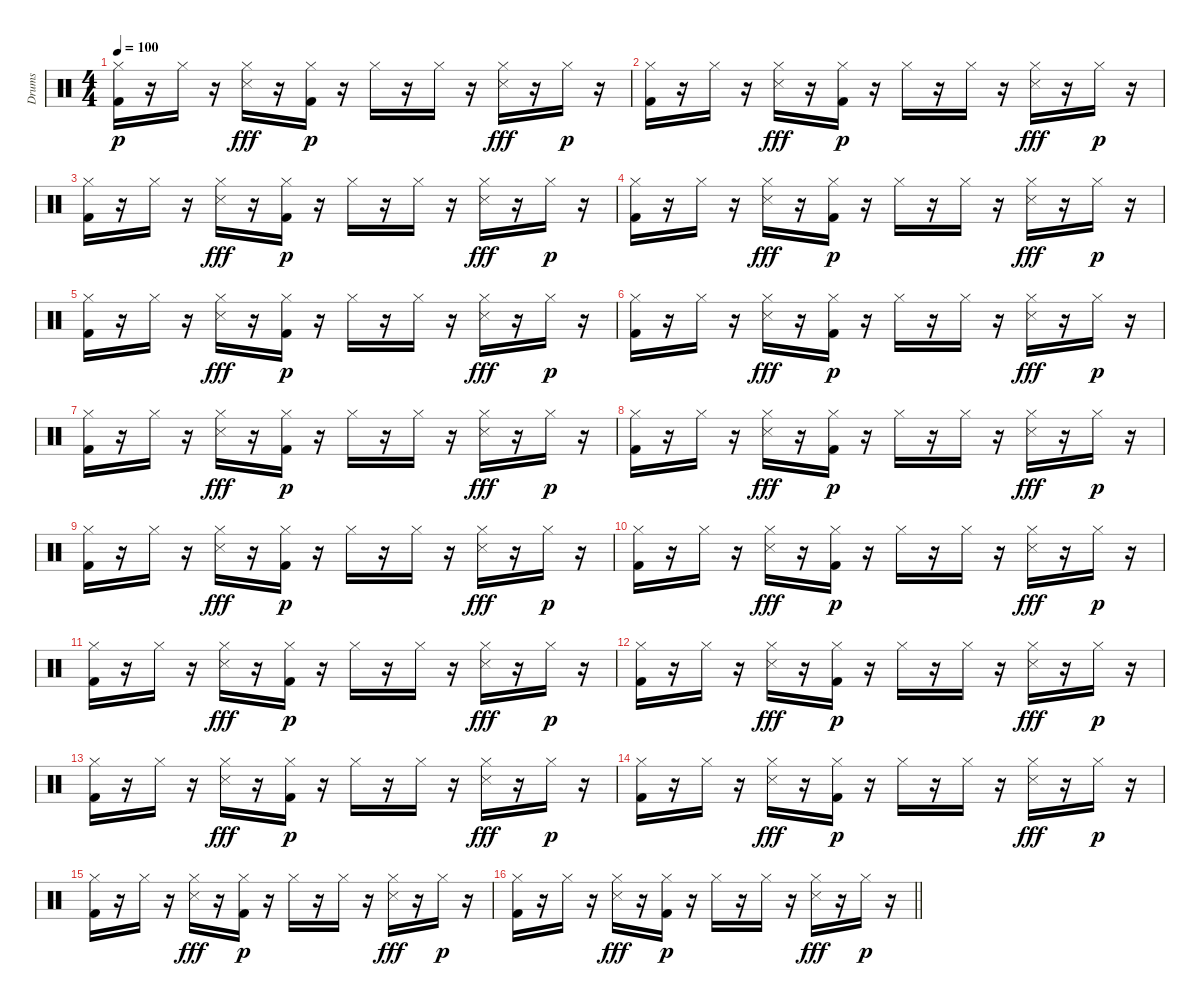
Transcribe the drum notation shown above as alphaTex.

\track ("Drums" "Drums") {instrument percussion}
\staff {score}
\articulation defaults
\ts (4 4)
\tempo 100
\clef neutral
\ks c
("Hi-Hat (closed)" "Kick (hit) 2").16{dy p} r.16 "Hi-Hat (closed)".16 r.16 ("Hi-Hat (closed)" "Snare (side stick) 3").16{dy fff} r.16 ("Hi-Hat (closed)" "Kick (hit) 2").16{dy p} r.16 "Hi-Hat (closed)".16 r.16 "Hi-Hat (closed)".16 r.16 ("Hi-Hat (closed)" "Snare (side stick) 3").16{dy fff} r.16 "Hi-Hat (closed)".16{dy p} r.16 |
("Hi-Hat (closed)" "Kick (hit) 2").16 r.16 "Hi-Hat (closed)".16 r.16 ("Hi-Hat (closed)" "Snare (side stick) 3").16{dy fff} r.16 ("Hi-Hat (closed)" "Kick (hit) 2").16{dy p} r.16 "Hi-Hat (closed)".16 r.16 "Hi-Hat (closed)".16 r.16 ("Hi-Hat (closed)" "Snare (side stick) 3").16{dy fff} r.16 "Hi-Hat (closed)".16{dy p} r.16 |
("Hi-Hat (closed)" "Kick (hit) 2").16 r.16 "Hi-Hat (closed)".16 r.16 ("Hi-Hat (closed)" "Snare (side stick) 3").16{dy fff} r.16 ("Hi-Hat (closed)" "Kick (hit) 2").16{dy p} r.16 "Hi-Hat (closed)".16 r.16 "Hi-Hat (closed)".16 r.16 ("Hi-Hat (closed)" "Snare (side stick) 3").16{dy fff} r.16 "Hi-Hat (closed)".16{dy p} r.16 |
("Hi-Hat (closed)" "Kick (hit) 2").16 r.16 "Hi-Hat (closed)".16 r.16 ("Hi-Hat (closed)" "Snare (side stick) 3").16{dy fff} r.16 ("Hi-Hat (closed)" "Kick (hit) 2").16{dy p} r.16 "Hi-Hat (closed)".16 r.16 "Hi-Hat (closed)".16 r.16 ("Hi-Hat (closed)" "Snare (side stick) 3").16{dy fff} r.16 "Hi-Hat (closed)".16{dy p} r.16 |
("Hi-Hat (closed)" "Kick (hit) 2").16 r.16 "Hi-Hat (closed)".16 r.16 ("Hi-Hat (closed)" "Snare (side stick) 3").16{dy fff} r.16 ("Hi-Hat (closed)" "Kick (hit) 2").16{dy p} r.16 "Hi-Hat (closed)".16 r.16 "Hi-Hat (closed)".16 r.16 ("Hi-Hat (closed)" "Snare (side stick) 3").16{dy fff} r.16 "Hi-Hat (closed)".16{dy p} r.16 |
("Hi-Hat (closed)" "Kick (hit) 2").16 r.16 "Hi-Hat (closed)".16 r.16 ("Hi-Hat (closed)" "Snare (side stick) 3").16{dy fff} r.16 ("Hi-Hat (closed)" "Kick (hit) 2").16{dy p} r.16 "Hi-Hat (closed)".16 r.16 "Hi-Hat (closed)".16 r.16 ("Hi-Hat (closed)" "Snare (side stick) 3").16{dy fff} r.16 "Hi-Hat (closed)".16{dy p} r.16 |
("Hi-Hat (closed)" "Kick (hit) 2").16 r.16 "Hi-Hat (closed)".16 r.16 ("Hi-Hat (closed)" "Snare (side stick) 3").16{dy fff} r.16 ("Hi-Hat (closed)" "Kick (hit) 2").16{dy p} r.16 "Hi-Hat (closed)".16 r.16 "Hi-Hat (closed)".16 r.16 ("Hi-Hat (closed)" "Snare (side stick) 3").16{dy fff} r.16 "Hi-Hat (closed)".16{dy p} r.16 |
("Hi-Hat (closed)" "Kick (hit) 2").16 r.16 "Hi-Hat (closed)".16 r.16 ("Hi-Hat (closed)" "Snare (side stick) 3").16{dy fff} r.16 ("Hi-Hat (closed)" "Kick (hit) 2").16{dy p} r.16 "Hi-Hat (closed)".16 r.16 "Hi-Hat (closed)".16 r.16 ("Hi-Hat (closed)" "Snare (side stick) 3").16{dy fff} r.16 "Hi-Hat (closed)".16{dy p} r.16 |
("Hi-Hat (closed)" "Kick (hit) 2").16 r.16 "Hi-Hat (closed)".16 r.16 ("Hi-Hat (closed)" "Snare (side stick) 3").16{dy fff} r.16 ("Hi-Hat (closed)" "Kick (hit) 2").16{dy p} r.16 "Hi-Hat (closed)".16 r.16 "Hi-Hat (closed)".16 r.16 ("Hi-Hat (closed)" "Snare (side stick) 3").16{dy fff} r.16 "Hi-Hat (closed)".16{dy p} r.16 |
("Hi-Hat (closed)" "Kick (hit) 2").16 r.16 "Hi-Hat (closed)".16 r.16 ("Hi-Hat (closed)" "Snare (side stick) 3").16{dy fff} r.16 ("Hi-Hat (closed)" "Kick (hit) 2").16{dy p} r.16 "Hi-Hat (closed)".16 r.16 "Hi-Hat (closed)".16 r.16 ("Hi-Hat (closed)" "Snare (side stick) 3").16{dy fff} r.16 "Hi-Hat (closed)".16{dy p} r.16 |
("Hi-Hat (closed)" "Kick (hit) 2").16 r.16 "Hi-Hat (closed)".16 r.16 ("Hi-Hat (closed)" "Snare (side stick) 3").16{dy fff} r.16 ("Hi-Hat (closed)" "Kick (hit) 2").16{dy p} r.16 "Hi-Hat (closed)".16 r.16 "Hi-Hat (closed)".16 r.16 ("Hi-Hat (closed)" "Snare (side stick) 3").16{dy fff} r.16 "Hi-Hat (closed)".16{dy p} r.16 |
("Hi-Hat (closed)" "Kick (hit) 2").16 r.16 "Hi-Hat (closed)".16 r.16 ("Hi-Hat (closed)" "Snare (side stick) 3").16{dy fff} r.16 ("Hi-Hat (closed)" "Kick (hit) 2").16{dy p} r.16 "Hi-Hat (closed)".16 r.16 "Hi-Hat (closed)".16 r.16 ("Hi-Hat (closed)" "Snare (side stick) 3").16{dy fff} r.16 "Hi-Hat (closed)".16{dy p} r.16 |
("Hi-Hat (closed)" "Kick (hit) 2").16 r.16 "Hi-Hat (closed)".16 r.16 ("Hi-Hat (closed)" "Snare (side stick) 3").16{dy fff} r.16 ("Hi-Hat (closed)" "Kick (hit) 2").16{dy p} r.16 "Hi-Hat (closed)".16 r.16 "Hi-Hat (closed)".16 r.16 ("Hi-Hat (closed)" "Snare (side stick) 3").16{dy fff} r.16 "Hi-Hat (closed)".16{dy p} r.16 |
("Hi-Hat (closed)" "Kick (hit) 2").16 r.16 "Hi-Hat (closed)".16 r.16 ("Hi-Hat (closed)" "Snare (side stick) 3").16{dy fff} r.16 ("Hi-Hat (closed)" "Kick (hit) 2").16{dy p} r.16 "Hi-Hat (closed)".16 r.16 "Hi-Hat (closed)".16 r.16 ("Hi-Hat (closed)" "Snare (side stick) 3").16{dy fff} r.16 "Hi-Hat (closed)".16{dy p} r.16 |
("Hi-Hat (closed)" "Kick (hit) 2").16 r.16 "Hi-Hat (closed)".16 r.16 ("Hi-Hat (closed)" "Snare (side stick) 3").16{dy fff} r.16 ("Hi-Hat (closed)" "Kick (hit) 2").16{dy p} r.16 "Hi-Hat (closed)".16 r.16 "Hi-Hat (closed)".16 r.16 ("Hi-Hat (closed)" "Snare (side stick) 3").16{dy fff} r.16 "Hi-Hat (closed)".16{dy p} r.16 |
\barLineRight lightlight
("Hi-Hat (closed)" "Kick (hit) 2").16 r.16 "Hi-Hat (closed)".16 r.16 ("Hi-Hat (closed)" "Snare (side stick) 3").16{dy fff} r.16 ("Hi-Hat (closed)" "Kick (hit) 2").16{dy p} r.16 "Hi-Hat (closed)".16 r.16 "Hi-Hat (closed)".16 r.16 ("Hi-Hat (closed)" "Snare (side stick) 3").16{dy fff} r.16 "Hi-Hat (closed)".16{dy p} r.16
